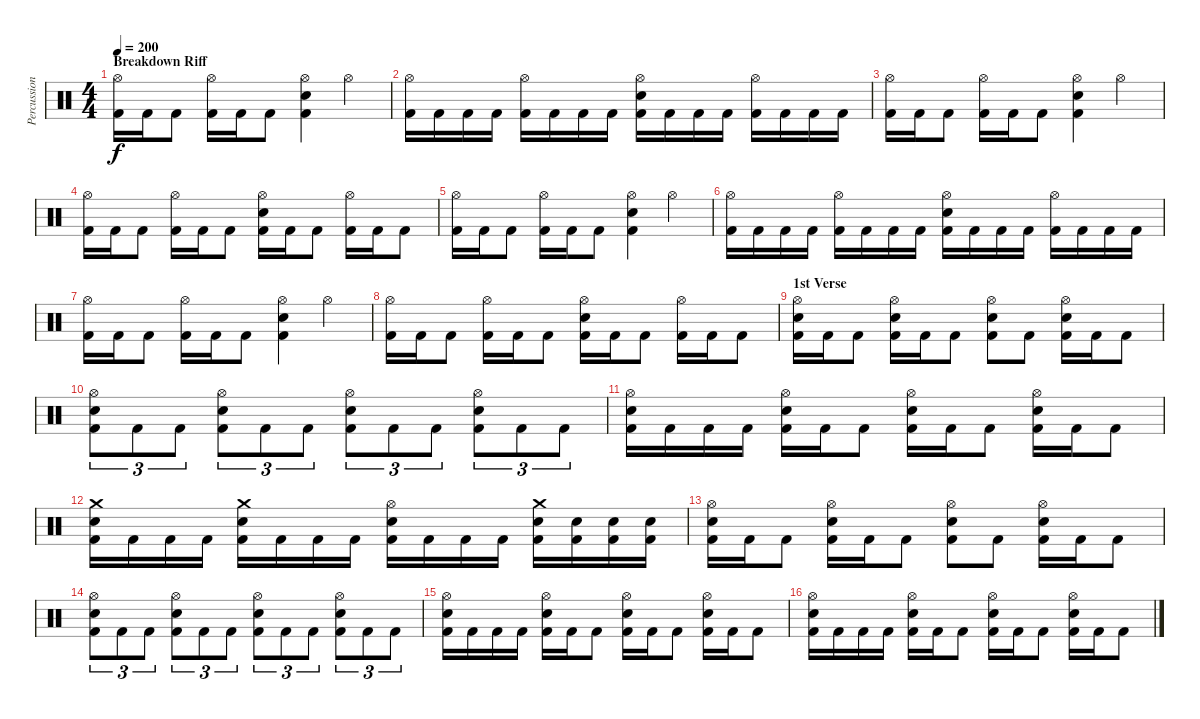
\track ("Percussion" "Percussion") {instrument percussion}
\staff {score}
\articulation defaults
\ts (4 4)
\section ("" "Breakdown Riff")
\tempo 200
\clef neutral
\ks c
("Hi-Hat (open)" "Kick (hit) 2").16{dy f} "Kick (hit) 2".16 "Kick (hit) 2".8 ("Hi-Hat (open)" "Kick (hit) 2").16 "Kick (hit) 2".16 "Kick (hit) 2".8 ("Hi-Hat (open)" "Electric Snare (hit)" "Kick (hit) 2").4 "Hi-Hat (open)".4 |
("Hi-Hat (open)" "Kick (hit) 2").16 "Kick (hit) 2".16 "Kick (hit) 2".16 "Kick (hit) 2".16 ("Hi-Hat (open)" "Kick (hit) 2").16 "Kick (hit) 2".16 "Kick (hit) 2".16 "Kick (hit) 2".16 ("Hi-Hat (open)" "Electric Snare (hit)" "Kick (hit) 2").16 "Kick (hit) 2".16 "Kick (hit) 2".16 "Kick (hit) 2".16 ("Hi-Hat (open)" "Kick (hit) 2").16 "Kick (hit) 2".16 "Kick (hit) 2".16 "Kick (hit) 2".16 |
("Hi-Hat (open)" "Kick (hit) 2").16 "Kick (hit) 2".16 "Kick (hit) 2".8 ("Hi-Hat (open)" "Kick (hit) 2").16 "Kick (hit) 2".16 "Kick (hit) 2".8 ("Hi-Hat (open)" "Electric Snare (hit)" "Kick (hit) 2").4 "Hi-Hat (open)".4 |
("Hi-Hat (open)" "Kick (hit) 2").16 "Kick (hit) 2".16 "Kick (hit) 2".8 ("Hi-Hat (open)" "Kick (hit) 2").16 "Kick (hit) 2".16 "Kick (hit) 2".8 ("Hi-Hat (open)" "Electric Snare (hit)" "Kick (hit) 2").16 "Kick (hit) 2".16 "Kick (hit) 2".8 ("Hi-Hat (open)" "Kick (hit) 2").16 "Kick (hit) 2".16 "Kick (hit) 2".8 |
("Hi-Hat (open)" "Kick (hit) 2").16 "Kick (hit) 2".16 "Kick (hit) 2".8 ("Hi-Hat (open)" "Kick (hit) 2").16 "Kick (hit) 2".16 "Kick (hit) 2".8 ("Hi-Hat (open)" "Electric Snare (hit)" "Kick (hit) 2").4 "Hi-Hat (open)".4 |
("Hi-Hat (open)" "Kick (hit) 2").16 "Kick (hit) 2".16 "Kick (hit) 2".16 "Kick (hit) 2".16 ("Hi-Hat (open)" "Kick (hit) 2").16 "Kick (hit) 2".16 "Kick (hit) 2".16 "Kick (hit) 2".16 ("Hi-Hat (open)" "Electric Snare (hit)" "Kick (hit) 2").16 "Kick (hit) 2".16 "Kick (hit) 2".16 "Kick (hit) 2".16 ("Hi-Hat (open)" "Kick (hit) 2").16 "Kick (hit) 2".16 "Kick (hit) 2".16 "Kick (hit) 2".16 |
("Hi-Hat (open)" "Kick (hit) 2").16 "Kick (hit) 2".16 "Kick (hit) 2".8 ("Hi-Hat (open)" "Kick (hit) 2").16 "Kick (hit) 2".16 "Kick (hit) 2".8 ("Hi-Hat (open)" "Electric Snare (hit)" "Kick (hit) 2").4 "Hi-Hat (open)".4 |
("Hi-Hat (open)" "Kick (hit) 2").16 "Kick (hit) 2".16 "Kick (hit) 2".8 ("Hi-Hat (open)" "Kick (hit) 2").16 "Kick (hit) 2".16 "Kick (hit) 2".8 ("Hi-Hat (open)" "Electric Snare (hit)" "Kick (hit) 2").16 "Kick (hit) 2".16 "Kick (hit) 2".8 ("Hi-Hat (open)" "Kick (hit) 2").16 "Kick (hit) 2".16 "Kick (hit) 2".8 |
\section ("" "1st Verse")
("Hi-Hat (open)" "Electric Snare (hit)" "Kick (hit) 2").16 "Kick (hit) 2".16 "Kick (hit) 2".8 ("Hi-Hat (open)" "Electric Snare (hit)" "Kick (hit) 2").16 "Kick (hit) 2".16 "Kick (hit) 2".8 ("Hi-Hat (open)" "Electric Snare (hit)" "Kick (hit) 2").8 "Kick (hit) 2".8 ("Hi-Hat (open)" "Electric Snare (hit)" "Kick (hit) 2").16 "Kick (hit) 2".16 "Kick (hit) 2".8 |
("Hi-Hat (open)" "Electric Snare (hit)" "Kick (hit) 2").8{tu (3 2)} "Kick (hit) 2".8{tu (3 2)} "Kick (hit) 2".8{tu (3 2)} ("Hi-Hat (open)" "Electric Snare (hit)" "Kick (hit) 2").8{tu (3 2)} "Kick (hit) 2".8{tu (3 2)} "Kick (hit) 2".8{tu (3 2)} ("Hi-Hat (open)" "Electric Snare (hit)" "Kick (hit) 2").8{tu (3 2)} "Kick (hit) 2".8{tu (3 2)} "Kick (hit) 2".8{tu (3 2)} ("Hi-Hat (open)" "Electric Snare (hit)" "Kick (hit) 2").8{tu (3 2)} "Kick (hit) 2".8{tu (3 2)} "Kick (hit) 2".8{tu (3 2)} |
("Hi-Hat (open)" "Electric Snare (hit)" "Kick (hit) 2").16 "Kick (hit) 2".16 "Kick (hit) 2".16 "Kick (hit) 2".16 ("Hi-Hat (open)" "Electric Snare (hit)" "Kick (hit) 2").16 "Kick (hit) 2".16 "Kick (hit) 2".8 ("Hi-Hat (open)" "Electric Snare (hit)" "Kick (hit) 2").16 "Kick (hit) 2".16 "Kick (hit) 2".8 ("Hi-Hat (open)" "Electric Snare (hit)" "Kick (hit) 2").16 "Kick (hit) 2".16 "Kick (hit) 2".8 |
("Crash medium (hit)" "Electric Snare (hit)" "Kick (hit) 2").16 "Kick (hit) 2".16 "Kick (hit) 2".16 "Kick (hit) 2".16 ("Crash medium (hit)" "Electric Snare (hit)" "Kick (hit) 2").16 "Kick (hit) 2".16 "Kick (hit) 2".16 "Kick (hit) 2".16 ("Hi-Hat (open)" "Electric Snare (hit)" "Kick (hit) 2").16 "Kick (hit) 2".16 "Kick (hit) 2".16 "Kick (hit) 2".16 ("Crash medium (hit)" "Electric Snare (hit)" "Kick (hit) 2").16 ("Electric Snare (hit)" "Kick (hit) 2").16 ("Electric Snare (hit)" "Kick (hit) 2").16 ("Electric Snare (hit)" "Kick (hit) 2").16 |
("Hi-Hat (open)" "Electric Snare (hit)" "Kick (hit) 2").16 "Kick (hit) 2".16 "Kick (hit) 2".8 ("Hi-Hat (open)" "Electric Snare (hit)" "Kick (hit) 2").16 "Kick (hit) 2".16 "Kick (hit) 2".8 ("Hi-Hat (open)" "Electric Snare (hit)" "Kick (hit) 2").8 "Kick (hit) 2".8 ("Hi-Hat (open)" "Electric Snare (hit)" "Kick (hit) 2").16 "Kick (hit) 2".16 "Kick (hit) 2".8 |
("Hi-Hat (open)" "Electric Snare (hit)" "Kick (hit) 2").8{tu (3 2)} "Kick (hit) 2".8{tu (3 2)} "Kick (hit) 2".8{tu (3 2)} ("Hi-Hat (open)" "Electric Snare (hit)" "Kick (hit) 2").8{tu (3 2)} "Kick (hit) 2".8{tu (3 2)} "Kick (hit) 2".8{tu (3 2)} ("Hi-Hat (open)" "Electric Snare (hit)" "Kick (hit) 2").8{tu (3 2)} "Kick (hit) 2".8{tu (3 2)} "Kick (hit) 2".8{tu (3 2)} ("Hi-Hat (open)" "Electric Snare (hit)" "Kick (hit) 2").8{tu (3 2)} "Kick (hit) 2".8{tu (3 2)} "Kick (hit) 2".8{tu (3 2)} |
("Hi-Hat (open)" "Electric Snare (hit)" "Kick (hit) 2").16 "Kick (hit) 2".16 "Kick (hit) 2".16 "Kick (hit) 2".16 ("Hi-Hat (open)" "Electric Snare (hit)" "Kick (hit) 2").16 "Kick (hit) 2".16 "Kick (hit) 2".8 ("Hi-Hat (open)" "Electric Snare (hit)" "Kick (hit) 2").16 "Kick (hit) 2".16 "Kick (hit) 2".8 ("Hi-Hat (open)" "Electric Snare (hit)" "Kick (hit) 2").16 "Kick (hit) 2".16 "Kick (hit) 2".8 |
("Hi-Hat (open)" "Electric Snare (hit)" "Kick (hit) 2").16 "Kick (hit) 2".16 "Kick (hit) 2".16 "Kick (hit) 2".16 ("Hi-Hat (open)" "Electric Snare (hit)" "Kick (hit) 2").16 "Kick (hit) 2".16 "Kick (hit) 2".8 ("Hi-Hat (open)" "Electric Snare (hit)" "Kick (hit) 2").16 "Kick (hit) 2".16 "Kick (hit) 2".8 ("Hi-Hat (open)" "Electric Snare (hit)" "Kick (hit) 2").16 "Kick (hit) 2".16 "Kick (hit) 2".8
